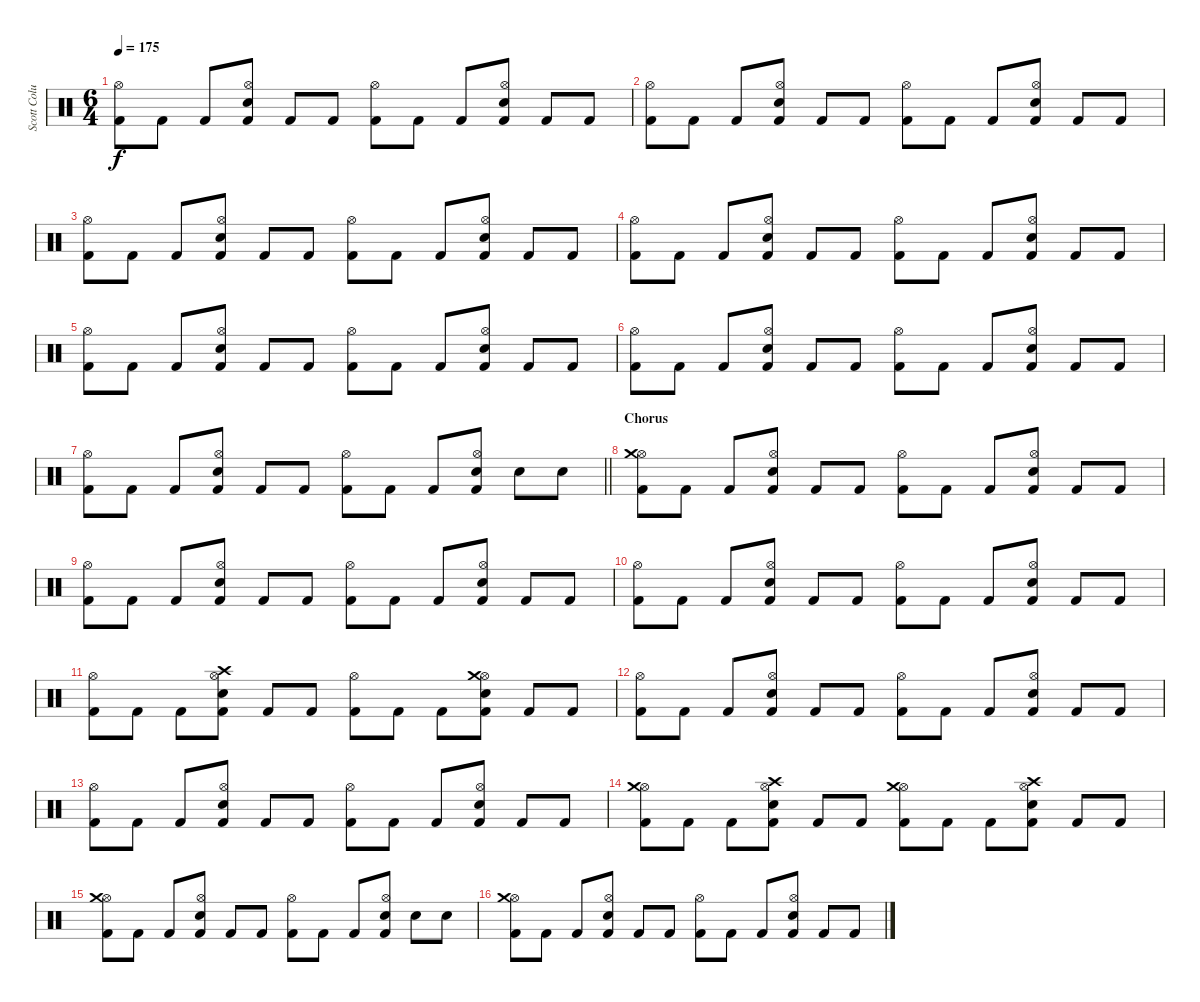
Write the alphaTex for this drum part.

\track ("Scott Columbus" "Scott Colu") {instrument percussion}
\staff {score}
\articulation defaults
\ts (6 4)
\tempo 175
\clef neutral
\ks c
("Kick (hit) 2" "Hi-Hat (open)").8{dy f} "Kick (hit) 2".8 "Kick (hit) 2".8 ("Kick (hit) 2" "Snare (hit) 2" "Hi-Hat (open)").8 "Kick (hit) 2".8 "Kick (hit) 2".8 ("Kick (hit) 2" "Hi-Hat (open)").8 "Kick (hit) 2".8 "Kick (hit) 2".8 ("Kick (hit) 2" "Snare (hit) 2" "Hi-Hat (open)").8 "Kick (hit) 2".8 "Kick (hit) 2".8 |
("Kick (hit) 2" "Hi-Hat (open)").8 "Kick (hit) 2".8 "Kick (hit) 2".8 ("Kick (hit) 2" "Snare (hit) 2" "Hi-Hat (open)").8 "Kick (hit) 2".8 "Kick (hit) 2".8 ("Kick (hit) 2" "Hi-Hat (open)").8 "Kick (hit) 2".8 "Kick (hit) 2".8 ("Kick (hit) 2" "Snare (hit) 2" "Hi-Hat (open)").8 "Kick (hit) 2".8 "Kick (hit) 2".8 |
("Kick (hit) 2" "Hi-Hat (open)").8 "Kick (hit) 2".8 "Kick (hit) 2".8 ("Kick (hit) 2" "Snare (hit) 2" "Hi-Hat (open)").8 "Kick (hit) 2".8 "Kick (hit) 2".8 ("Kick (hit) 2" "Hi-Hat (open)").8 "Kick (hit) 2".8 "Kick (hit) 2".8 ("Kick (hit) 2" "Snare (hit) 2" "Hi-Hat (open)").8 "Kick (hit) 2".8 "Kick (hit) 2".8 |
("Kick (hit) 2" "Hi-Hat (open)").8 "Kick (hit) 2".8 "Kick (hit) 2".8 ("Kick (hit) 2" "Snare (hit) 2" "Hi-Hat (open)").8 "Kick (hit) 2".8 "Kick (hit) 2".8 ("Kick (hit) 2" "Hi-Hat (open)").8 "Kick (hit) 2".8 "Kick (hit) 2".8 ("Kick (hit) 2" "Snare (hit) 2" "Hi-Hat (open)").8 "Kick (hit) 2".8 "Kick (hit) 2".8 |
("Kick (hit) 2" "Hi-Hat (open)").8 "Kick (hit) 2".8 "Kick (hit) 2".8 ("Kick (hit) 2" "Snare (hit) 2" "Hi-Hat (open)").8 "Kick (hit) 2".8 "Kick (hit) 2".8 ("Kick (hit) 2" "Hi-Hat (open)").8 "Kick (hit) 2".8 "Kick (hit) 2".8 ("Kick (hit) 2" "Snare (hit) 2" "Hi-Hat (open)").8 "Kick (hit) 2".8 "Kick (hit) 2".8 |
("Kick (hit) 2" "Hi-Hat (open)").8 "Kick (hit) 2".8 "Kick (hit) 2".8 ("Kick (hit) 2" "Snare (hit) 2" "Hi-Hat (open)").8 "Kick (hit) 2".8 "Kick (hit) 2".8 ("Kick (hit) 2" "Hi-Hat (open)").8 "Kick (hit) 2".8 "Kick (hit) 2".8 ("Kick (hit) 2" "Snare (hit) 2" "Hi-Hat (open)").8 "Kick (hit) 2".8 "Kick (hit) 2".8 |
\barLineRight lightlight
("Kick (hit) 2" "Hi-Hat (open)").8 "Kick (hit) 2".8 "Kick (hit) 2".8 ("Kick (hit) 2" "Snare (hit) 2" "Hi-Hat (open)").8 "Kick (hit) 2".8 "Kick (hit) 2".8 ("Kick (hit) 2" "Hi-Hat (open)").8 "Kick (hit) 2".8 "Kick (hit) 2".8 ("Kick (hit) 2" "Snare (hit) 2" "Hi-Hat (open)").8 "Snare (hit) 2".8 "Snare (hit) 2".8 |
\section ("" "Chorus")
("Kick (hit) 2" "Hi-Hat (open)" "Crash medium (hit)").8 "Kick (hit) 2".8 "Kick (hit) 2".8 ("Kick (hit) 2" "Snare (hit) 2" "Hi-Hat (open)").8 "Kick (hit) 2".8 "Kick (hit) 2".8 ("Kick (hit) 2" "Hi-Hat (open)").8 "Kick (hit) 2".8 "Kick (hit) 2".8 ("Kick (hit) 2" "Snare (hit) 2" "Hi-Hat (open)").8 "Kick (hit) 2".8 "Kick (hit) 2".8 |
("Kick (hit) 2" "Hi-Hat (open)").8 "Kick (hit) 2".8 "Kick (hit) 2".8 ("Kick (hit) 2" "Snare (hit) 2" "Hi-Hat (open)").8 "Kick (hit) 2".8 "Kick (hit) 2".8 ("Kick (hit) 2" "Hi-Hat (open)").8 "Kick (hit) 2".8 "Kick (hit) 2".8 ("Kick (hit) 2" "Snare (hit) 2" "Hi-Hat (open)").8 "Kick (hit) 2".8 "Kick (hit) 2".8 |
("Kick (hit) 2" "Hi-Hat (open)").8 "Kick (hit) 2".8 "Kick (hit) 2".8 ("Kick (hit) 2" "Snare (hit) 2" "Hi-Hat (open)").8 "Kick (hit) 2".8 "Kick (hit) 2".8 ("Kick (hit) 2" "Hi-Hat (open)").8 "Kick (hit) 2".8 "Kick (hit) 2".8 ("Kick (hit) 2" "Snare (hit) 2" "Hi-Hat (open)").8 "Kick (hit) 2".8 "Kick (hit) 2".8 |
("Kick (hit) 2" "Hi-Hat (open)").8 "Kick (hit) 2".8 "Kick (hit) 2".8 ("Kick (hit) 2" "Snare (hit) 2" "Hi-Hat (open)" "Crash high (hit)").8 "Kick (hit) 2".8 "Kick (hit) 2".8 ("Kick (hit) 2" "Hi-Hat (open)").8 "Kick (hit) 2".8 "Kick (hit) 2".8 ("Kick (hit) 2" "Snare (hit) 2" "Hi-Hat (open)" "Crash medium (hit)").8 "Kick (hit) 2".8 "Kick (hit) 2".8 |
("Kick (hit) 2" "Hi-Hat (open)").8 "Kick (hit) 2".8 "Kick (hit) 2".8 ("Kick (hit) 2" "Snare (hit) 2" "Hi-Hat (open)").8 "Kick (hit) 2".8 "Kick (hit) 2".8 ("Kick (hit) 2" "Hi-Hat (open)").8 "Kick (hit) 2".8 "Kick (hit) 2".8 ("Kick (hit) 2" "Snare (hit) 2" "Hi-Hat (open)").8 "Kick (hit) 2".8 "Kick (hit) 2".8 |
("Kick (hit) 2" "Hi-Hat (open)").8 "Kick (hit) 2".8 "Kick (hit) 2".8 ("Kick (hit) 2" "Snare (hit) 2" "Hi-Hat (open)").8 "Kick (hit) 2".8 "Kick (hit) 2".8 ("Kick (hit) 2" "Hi-Hat (open)").8 "Kick (hit) 2".8 "Kick (hit) 2".8 ("Kick (hit) 2" "Snare (hit) 2" "Hi-Hat (open)").8 "Kick (hit) 2".8 "Kick (hit) 2".8 |
("Kick (hit) 2" "Hi-Hat (open)" "Crash medium (hit)").8 "Kick (hit) 2".8 "Kick (hit) 2".8 ("Kick (hit) 2" "Snare (hit) 2" "Hi-Hat (open)" "Crash high (hit)").8 "Kick (hit) 2".8 "Kick (hit) 2".8 ("Kick (hit) 2" "Hi-Hat (open)" "Crash medium (hit)").8 "Kick (hit) 2".8 "Kick (hit) 2".8 ("Kick (hit) 2" "Snare (hit) 2" "Hi-Hat (open)" "Crash high (hit)").8 "Kick (hit) 2".8 "Kick (hit) 2".8 |
("Kick (hit) 2" "Hi-Hat (open)" "Crash medium (hit)").8 "Kick (hit) 2".8 "Kick (hit) 2".8 ("Kick (hit) 2" "Snare (hit) 2" "Hi-Hat (open)").8 "Kick (hit) 2".8 "Kick (hit) 2".8 ("Kick (hit) 2" "Hi-Hat (open)").8 "Kick (hit) 2".8 "Kick (hit) 2".8 ("Kick (hit) 2" "Snare (hit) 2" "Hi-Hat (open)").8 "Snare (hit) 2".8 "Snare (hit) 2".8 |
("Kick (hit) 2" "Hi-Hat (open)" "Crash medium (hit)").8 "Kick (hit) 2".8 "Kick (hit) 2".8 ("Kick (hit) 2" "Snare (hit) 2" "Hi-Hat (open)").8 "Kick (hit) 2".8 "Kick (hit) 2".8 ("Kick (hit) 2" "Hi-Hat (open)").8 "Kick (hit) 2".8 "Kick (hit) 2".8 ("Kick (hit) 2" "Snare (hit) 2" "Hi-Hat (open)").8 "Kick (hit) 2".8 "Kick (hit) 2".8
